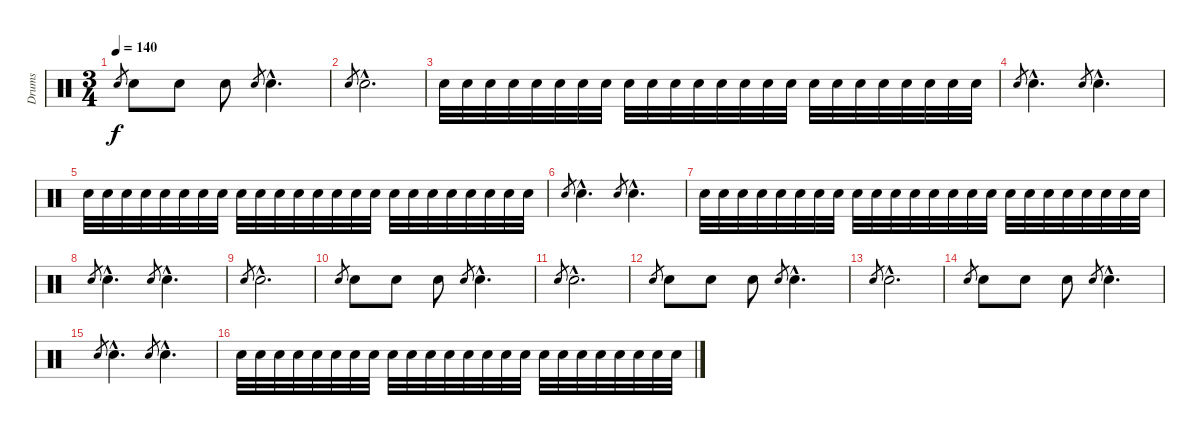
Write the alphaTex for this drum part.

\track ("Drums" "Drums") {instrument percussion}
\staff {score}
\articulation defaults
\ts (3 4)
\tempo 140
\clef neutral
\ks c "Snare (hit) 2".8{gr dy f} "Snare (hit) 2".8 "Snare (hit) 2".8 "Snare (hit) 2".8 "Snare (hit) 2".8{gr} "Snare (hit) 2"{hac}.4{d}
|
"Snare (hit) 2".8{gr} "Snare (hit) 2"{hac}.2{d} |
"Snare (hit) 2".32 "Snare (hit) 2".32 "Snare (hit) 2".32 "Snare (hit) 2".32 "Snare (hit) 2".32 "Snare (hit) 2".32 "Snare (hit) 2".32 "Snare (hit) 2".32 "Snare (hit) 2".32 "Snare (hit) 2".32 "Snare (hit) 2".32 "Snare (hit) 2".32 "Snare (hit) 2".32 "Snare (hit) 2".32 "Snare (hit) 2".32 "Snare (hit) 2".32 "Snare (hit) 2".32 "Snare (hit) 2".32 "Snare (hit) 2".32 "Snare (hit) 2".32 "Snare (hit) 2".32 "Snare (hit) 2".32 "Snare (hit) 2".32 "Snare (hit) 2".32 |
"Snare (hit) 2".8{gr} "Snare (hit) 2"{hac}.4{d} "Snare (hit) 2".8{gr} "Snare (hit) 2"{hac}.4{d} |
"Snare (hit) 2".32 "Snare (hit) 2".32 "Snare (hit) 2".32 "Snare (hit) 2".32 "Snare (hit) 2".32 "Snare (hit) 2".32 "Snare (hit) 2".32 "Snare (hit) 2".32 "Snare (hit) 2".32 "Snare (hit) 2".32 "Snare (hit) 2".32 "Snare (hit) 2".32 "Snare (hit) 2".32 "Snare (hit) 2".32 "Snare (hit) 2".32 "Snare (hit) 2".32 "Snare (hit) 2".32 "Snare (hit) 2".32 "Snare (hit) 2".32 "Snare (hit) 2".32 "Snare (hit) 2".32 "Snare (hit) 2".32 "Snare (hit) 2".32 "Snare (hit) 2".32 |
"Snare (hit) 2".8{gr} "Snare (hit) 2"{hac}.4{d} "Snare (hit) 2".8{gr} "Snare (hit) 2"{hac}.4{d} |
"Snare (hit) 2".32 "Snare (hit) 2".32 "Snare (hit) 2".32 "Snare (hit) 2".32 "Snare (hit) 2".32 "Snare (hit) 2".32 "Snare (hit) 2".32 "Snare (hit) 2".32 "Snare (hit) 2".32 "Snare (hit) 2".32 "Snare (hit) 2".32 "Snare (hit) 2".32 "Snare (hit) 2".32 "Snare (hit) 2".32 "Snare (hit) 2".32 "Snare (hit) 2".32 "Snare (hit) 2".32 "Snare (hit) 2".32 "Snare (hit) 2".32 "Snare (hit) 2".32 "Snare (hit) 2".32 "Snare (hit) 2".32 "Snare (hit) 2".32 "Snare (hit) 2".32 |
"Snare (hit) 2".8{gr} "Snare (hit) 2"{hac}.4{d} "Snare (hit) 2".8{gr} "Snare (hit) 2"{hac}.4{d} |
"Snare (hit) 2".8{gr} "Snare (hit) 2"{hac}.2{d} |
"Snare (hit) 2".8{gr} "Snare (hit) 2".8 "Snare (hit) 2".8 "Snare (hit) 2".8 "Snare (hit) 2".8{gr} "Snare (hit) 2"{hac}.4{d} |
"Snare (hit) 2".8{gr} "Snare (hit) 2"{hac}.2{d} |
"Snare (hit) 2".8{gr} "Snare (hit) 2".8 "Snare (hit) 2".8 "Snare (hit) 2".8 "Snare (hit) 2".8{gr} "Snare (hit) 2"{hac}.4{d} |
"Snare (hit) 2".8{gr} "Snare (hit) 2"{hac}.2{d} |
"Snare (hit) 2".8{gr} "Snare (hit) 2".8 "Snare (hit) 2".8 "Snare (hit) 2".8 "Snare (hit) 2".8{gr} "Snare (hit) 2"{hac}.4{d} |
"Snare (hit) 2".8{gr} "Snare (hit) 2"{hac}.4{d} "Snare (hit) 2".8{gr} "Snare (hit) 2"{hac}.4{d} |
"Snare (hit) 2".32 "Snare (hit) 2".32 "Snare (hit) 2".32 "Snare (hit) 2".32 "Snare (hit) 2".32 "Snare (hit) 2".32 "Snare (hit) 2".32 "Snare (hit) 2".32 "Snare (hit) 2".32 "Snare (hit) 2".32 "Snare (hit) 2".32 "Snare (hit) 2".32 "Snare (hit) 2".32 "Snare (hit) 2".32 "Snare (hit) 2".32 "Snare (hit) 2".32 "Snare (hit) 2".32 "Snare (hit) 2".32 "Snare (hit) 2".32 "Snare (hit) 2".32 "Snare (hit) 2".32 "Snare (hit) 2".32 "Snare (hit) 2".32 "Snare (hit) 2".32
